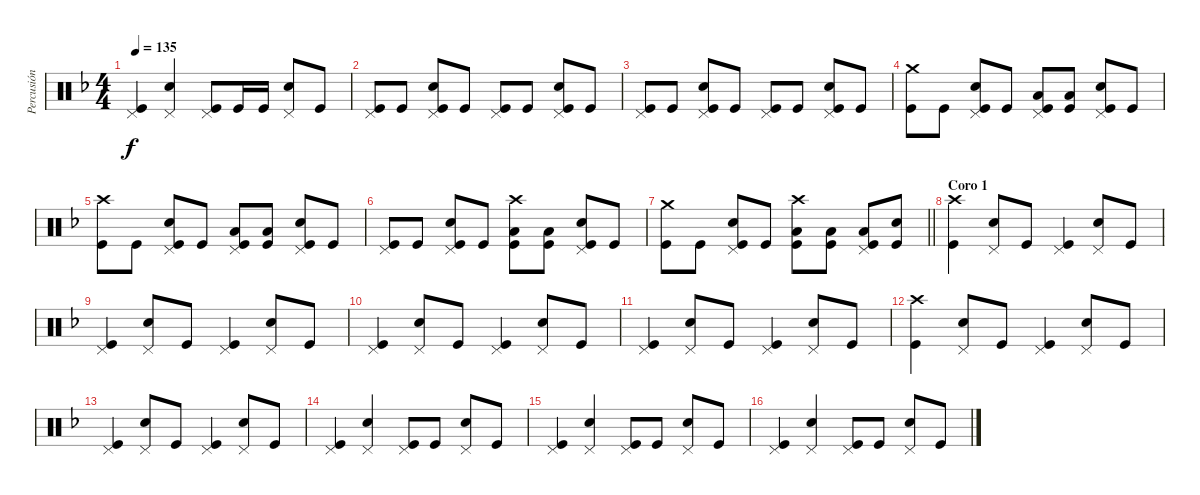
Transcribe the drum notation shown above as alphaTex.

\track ("Percusión" "Percusión") {instrument percussion}
\staff {score}
\articulation defaults
\ts (4 4)
\tempo 135
\clef neutral
\ks dminor
("Pedal Hi-Hat (hit)" "Kick (hit)").4{dy f} ("Pedal Hi-Hat (hit)" "Snare (hit) 2").4 ("Pedal Hi-Hat (hit)" "Kick (hit)").8 "Kick (hit)".16 "Kick (hit)".16 ("Pedal Hi-Hat (hit)" "Snare (hit) 2").8 "Kick (hit)".8 |
("Pedal Hi-Hat (hit)" "Kick (hit)").8 "Kick (hit)".8 ("Pedal Hi-Hat (hit)" "Snare (hit) 2" "Kick (hit)").8 "Kick (hit)".8 ("Pedal Hi-Hat (hit)" "Kick (hit)").8 "Kick (hit)".8 ("Pedal Hi-Hat (hit)" "Snare (hit) 2" "Kick (hit)").8 "Kick (hit)".8 |
("Pedal Hi-Hat (hit)" "Kick (hit)").8 "Kick (hit)".8 ("Pedal Hi-Hat (hit)" "Snare (hit) 2" "Kick (hit)").8 "Kick (hit)".8 ("Pedal Hi-Hat (hit)" "Kick (hit)").8 "Kick (hit)".8 ("Pedal Hi-Hat (hit)" "Snare (hit) 2" "Kick (hit)").8 "Kick (hit)".8 |
("Crash medium (hit)" "Kick (hit)").8 "Kick (hit)".8 ("Pedal Hi-Hat (hit)" "Snare (hit) 2" "Kick (hit)").8 "Kick (hit)".8 ("Pedal Hi-Hat (hit)" "Low Tom (hit)" "Kick (hit)").8 ("Low Tom (hit)" "Kick (hit)").8 ("Pedal Hi-Hat (hit)" "Snare (hit) 2" "Kick (hit)").8 "Kick (hit)".8 |
("Crash high (hit)" "Kick (hit)").8 "Kick (hit)".8 ("Pedal Hi-Hat (hit)" "Snare (hit) 2" "Kick (hit)").8 "Kick (hit)".8 ("Pedal Hi-Hat (hit)" "Low Tom (hit)" "Kick (hit)").8 ("Low Tom (hit)" "Kick (hit)").8 ("Pedal Hi-Hat (hit)" "Snare (hit) 2" "Kick (hit)").8 "Kick (hit)".8 |
("Pedal Hi-Hat (hit)" "Kick (hit)").8 "Kick (hit)".8 ("Pedal Hi-Hat (hit)" "Snare (hit) 2" "Kick (hit)").8 "Kick (hit)".8 ("Crash high (hit)" "Low Tom (hit)" "Kick (hit)").8 ("Low Tom (hit)" "Kick (hit)").8 ("Pedal Hi-Hat (hit)" "Snare (hit) 2" "Kick (hit)").8 "Kick (hit)".8 |
\barLineRight lightlight
("Crash medium (hit)" "Kick (hit)").8 "Kick (hit)".8 ("Pedal Hi-Hat (hit)" "Snare (hit) 2" "Kick (hit)").8 "Kick (hit)".8 ("Crash high (hit)" "Low Tom (hit)" "Kick (hit)").8 ("Low Tom (hit)" "Kick (hit)").8 ("Pedal Hi-Hat (hit)" "Low Tom (hit)" "Kick (hit)").8 ("Snare (hit) 2" "Kick (hit)").8 |
\section ("" "Coro 1")
("Crash high (hit)" "Kick (hit)").4 ("Pedal Hi-Hat (hit)" "Snare (hit) 2").8 "Kick (hit)".8 ("Pedal Hi-Hat (hit)" "Kick (hit)").4 ("Pedal Hi-Hat (hit)" "Snare (hit) 2").8 "Kick (hit)".8 |
("Pedal Hi-Hat (hit)" "Kick (hit)").4 ("Pedal Hi-Hat (hit)" "Snare (hit) 2").8 "Kick (hit)".8 ("Pedal Hi-Hat (hit)" "Kick (hit)").4 ("Pedal Hi-Hat (hit)" "Snare (hit) 2").8 "Kick (hit)".8 |
("Pedal Hi-Hat (hit)" "Kick (hit)").4 ("Pedal Hi-Hat (hit)" "Snare (hit) 2").8 "Kick (hit)".8 ("Pedal Hi-Hat (hit)" "Kick (hit)").4 ("Pedal Hi-Hat (hit)" "Snare (hit) 2").8 "Kick (hit)".8 |
("Pedal Hi-Hat (hit)" "Kick (hit)").4 ("Pedal Hi-Hat (hit)" "Snare (hit) 2").8 "Kick (hit)".8 ("Pedal Hi-Hat (hit)" "Kick (hit)").4 ("Pedal Hi-Hat (hit)" "Snare (hit) 2").8 "Kick (hit)".8 |
("Crash high (hit)" "Kick (hit)").4 ("Pedal Hi-Hat (hit)" "Snare (hit) 2").8 "Kick (hit)".8 ("Pedal Hi-Hat (hit)" "Kick (hit)").4 ("Pedal Hi-Hat (hit)" "Snare (hit) 2").8 "Kick (hit)".8 |
("Pedal Hi-Hat (hit)" "Kick (hit)").4 ("Pedal Hi-Hat (hit)" "Snare (hit) 2").8 "Kick (hit)".8 ("Pedal Hi-Hat (hit)" "Kick (hit)").4 ("Pedal Hi-Hat (hit)" "Snare (hit) 2").8 "Kick (hit)".8 |
("Pedal Hi-Hat (hit)" "Kick (hit)").4 ("Pedal Hi-Hat (hit)" "Snare (hit) 2").4 ("Pedal Hi-Hat (hit)" "Kick (hit)").8 "Kick (hit)".8 ("Pedal Hi-Hat (hit)" "Snare (hit) 2").8 "Kick (hit)".8 |
("Pedal Hi-Hat (hit)" "Kick (hit)").4 ("Pedal Hi-Hat (hit)" "Snare (hit) 2").4 ("Pedal Hi-Hat (hit)" "Kick (hit)").8 "Kick (hit)".8 ("Pedal Hi-Hat (hit)" "Snare (hit) 2").8 "Kick (hit)".8 |
("Pedal Hi-Hat (hit)" "Kick (hit)").4 ("Pedal Hi-Hat (hit)" "Snare (hit) 2").4 ("Pedal Hi-Hat (hit)" "Kick (hit)").8 "Kick (hit)".8 ("Pedal Hi-Hat (hit)" "Snare (hit) 2").8 "Kick (hit)".8
